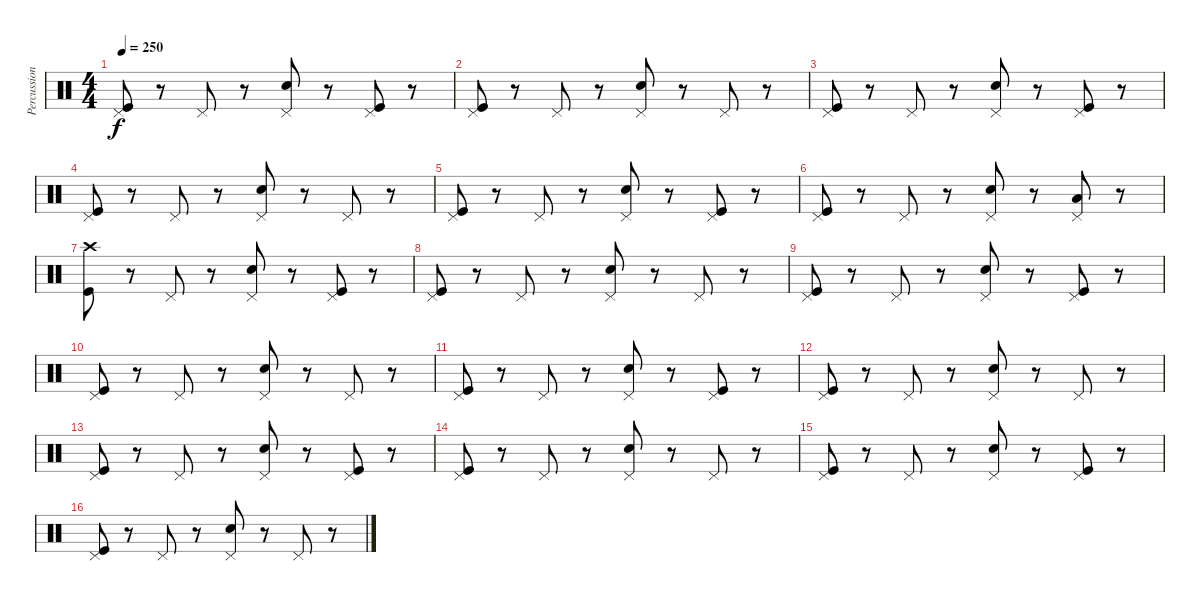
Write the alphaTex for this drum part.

\track ("Percussions" "Percussion") {instrument percussion}
\staff {score}
\articulation defaults
\ts (4 4)
\tempo 250
\clef neutral
\ks c
("Pedal Hi-Hat (hit)" "Kick (hit)").8{dy f} r.8 "Pedal Hi-Hat (hit)".8 r.8 ("Pedal Hi-Hat (hit)" "Snare (hit) 2").8 r.8 ("Pedal Hi-Hat (hit)" "Kick (hit)").8 r.8 |
("Pedal Hi-Hat (hit)" "Kick (hit)").8 r.8 "Pedal Hi-Hat (hit)".8 r.8 ("Pedal Hi-Hat (hit)" "Snare (hit) 2").8 r.8 "Pedal Hi-Hat (hit)".8 r.8 |
("Pedal Hi-Hat (hit)" "Kick (hit)").8 r.8 "Pedal Hi-Hat (hit)".8 r.8 ("Pedal Hi-Hat (hit)" "Snare (hit) 2").8 r.8 ("Pedal Hi-Hat (hit)" "Kick (hit)").8 r.8 |
("Pedal Hi-Hat (hit)" "Kick (hit)").8 r.8 "Pedal Hi-Hat (hit)".8 r.8 ("Pedal Hi-Hat (hit)" "Snare (hit) 2").8 r.8 "Pedal Hi-Hat (hit)".8 r.8 |
("Pedal Hi-Hat (hit)" "Kick (hit)").8 r.8 "Pedal Hi-Hat (hit)".8 r.8 ("Pedal Hi-Hat (hit)" "Snare (hit) 2").8 r.8 ("Pedal Hi-Hat (hit)" "Kick (hit)").8 r.8 |
("Pedal Hi-Hat (hit)" "Kick (hit)").8 r.8 "Pedal Hi-Hat (hit)".8 r.8 ("Pedal Hi-Hat (hit)" "Snare (hit) 2").8 r.8 ("Pedal Hi-Hat (hit)" "Low Tom (hit)").8 r.8 |
("Crash high (hit)" "Kick (hit)").8 r.8 "Pedal Hi-Hat (hit)".8 r.8 ("Pedal Hi-Hat (hit)" "Snare (hit) 2").8 r.8 ("Pedal Hi-Hat (hit)" "Kick (hit)").8 r.8 |
("Pedal Hi-Hat (hit)" "Kick (hit)").8 r.8 "Pedal Hi-Hat (hit)".8 r.8 ("Pedal Hi-Hat (hit)" "Snare (hit) 2").8 r.8 "Pedal Hi-Hat (hit)".8 r.8 |
("Pedal Hi-Hat (hit)" "Kick (hit)").8 r.8 "Pedal Hi-Hat (hit)".8 r.8 ("Pedal Hi-Hat (hit)" "Snare (hit) 2").8 r.8 ("Pedal Hi-Hat (hit)" "Kick (hit)").8 r.8 |
("Pedal Hi-Hat (hit)" "Kick (hit)").8 r.8 "Pedal Hi-Hat (hit)".8 r.8 ("Pedal Hi-Hat (hit)" "Snare (hit) 2").8 r.8 "Pedal Hi-Hat (hit)".8 r.8 |
("Pedal Hi-Hat (hit)" "Kick (hit)").8 r.8 "Pedal Hi-Hat (hit)".8 r.8 ("Pedal Hi-Hat (hit)" "Snare (hit) 2").8 r.8 ("Pedal Hi-Hat (hit)" "Kick (hit)").8 r.8 |
("Pedal Hi-Hat (hit)" "Kick (hit)").8 r.8 "Pedal Hi-Hat (hit)".8 r.8 ("Pedal Hi-Hat (hit)" "Snare (hit) 2").8 r.8 "Pedal Hi-Hat (hit)".8 r.8 |
("Pedal Hi-Hat (hit)" "Kick (hit)").8 r.8 "Pedal Hi-Hat (hit)".8 r.8 ("Pedal Hi-Hat (hit)" "Snare (hit) 2").8 r.8 ("Pedal Hi-Hat (hit)" "Kick (hit)").8 r.8 |
("Pedal Hi-Hat (hit)" "Kick (hit)").8 r.8 "Pedal Hi-Hat (hit)".8 r.8 ("Pedal Hi-Hat (hit)" "Snare (hit) 2").8 r.8 "Pedal Hi-Hat (hit)".8 r.8 |
("Pedal Hi-Hat (hit)" "Kick (hit)").8 r.8 "Pedal Hi-Hat (hit)".8 r.8 ("Pedal Hi-Hat (hit)" "Snare (hit) 2").8 r.8 ("Pedal Hi-Hat (hit)" "Kick (hit)").8 r.8 |
("Pedal Hi-Hat (hit)" "Kick (hit)").8 r.8 "Pedal Hi-Hat (hit)".8 r.8 ("Pedal Hi-Hat (hit)" "Snare (hit) 2").8 r.8 "Pedal Hi-Hat (hit)".8 r.8
